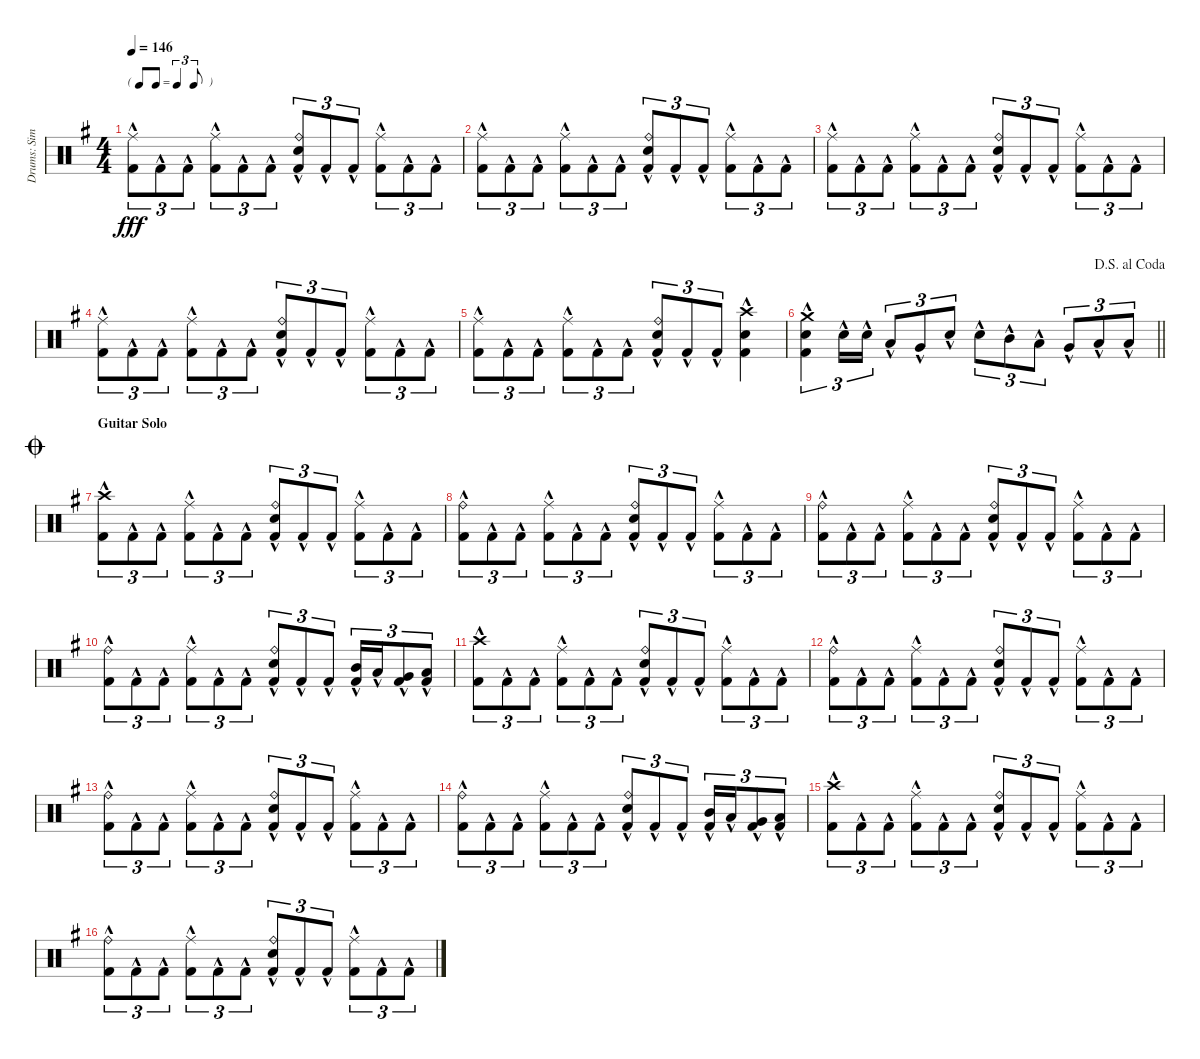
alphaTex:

\track ("Drums: Simon" "Drums: Sim") {instrument percussion}
\staff {score}
\articulation defaults
\ts (4 4)
\tf triplet8th
\tempo 146
\clef neutral
\ks g
("Ride (middle)"{hac} "Kick (hit) 2"{hac}).8{tu (3 2) dy fff} "Kick (hit) 2"{hac}.8{tu (3 2)} "Kick (hit) 2"{hac}.8{tu (3 2)} ("Ride (middle)"{hac} "Kick (hit) 2"{hac}).8{tu (3 2)} "Kick (hit) 2"{hac}.8{tu (3 2)} "Kick (hit) 2"{hac}.8{tu (3 2)} ("Ride (bell)"{hac} "Snare (hit) 2"{hac} "Kick (hit) 2"{hac}).8{tu (3 2)} "Kick (hit) 2"{hac}.8{tu (3 2)} "Kick (hit) 2"{hac}.8{tu (3 2)} ("Ride (middle)"{hac} "Kick (hit) 2"{hac}).8{tu (3 2)} "Kick (hit) 2"{hac}.8{tu (3 2)} "Kick (hit) 2"{hac}.8{tu (3 2)} |
("Ride (middle)"{hac} "Kick (hit) 2"{hac}).8{tu (3 2)} "Kick (hit) 2"{hac}.8{tu (3 2)} "Kick (hit) 2"{hac}.8{tu (3 2)} ("Ride (middle)"{hac} "Kick (hit) 2"{hac}).8{tu (3 2)} "Kick (hit) 2"{hac}.8{tu (3 2)} "Kick (hit) 2"{hac}.8{tu (3 2)} ("Ride (bell)"{hac} "Snare (hit) 2"{hac} "Kick (hit) 2"{hac}).8{tu (3 2)} "Kick (hit) 2"{hac}.8{tu (3 2)} "Kick (hit) 2"{hac}.8{tu (3 2)} ("Ride (middle)"{hac} "Kick (hit) 2"{hac}).8{tu (3 2)} "Kick (hit) 2"{hac}.8{tu (3 2)} "Kick (hit) 2"{hac}.8{tu (3 2)} |
("Ride (middle)"{hac} "Kick (hit) 2"{hac}).8{tu (3 2)} "Kick (hit) 2"{hac}.8{tu (3 2)} "Kick (hit) 2"{hac}.8{tu (3 2)} ("Ride (middle)"{hac} "Kick (hit) 2"{hac}).8{tu (3 2)} "Kick (hit) 2"{hac}.8{tu (3 2)} "Kick (hit) 2"{hac}.8{tu (3 2)} ("Ride (bell)"{hac} "Snare (hit) 2"{hac} "Kick (hit) 2"{hac}).8{tu (3 2)} "Kick (hit) 2"{hac}.8{tu (3 2)} "Kick (hit) 2"{hac}.8{tu (3 2)} ("Ride (middle)"{hac} "Kick (hit) 2"{hac}).8{tu (3 2)} "Kick (hit) 2"{hac}.8{tu (3 2)} "Kick (hit) 2"{hac}.8{tu (3 2)} |
("Ride (middle)"{hac} "Kick (hit) 2"{hac}).8{tu (3 2)} "Kick (hit) 2"{hac}.8{tu (3 2)} "Kick (hit) 2"{hac}.8{tu (3 2)} ("Ride (middle)"{hac} "Kick (hit) 2"{hac}).8{tu (3 2)} "Kick (hit) 2"{hac}.8{tu (3 2)} "Kick (hit) 2"{hac}.8{tu (3 2)} ("Ride (bell)"{hac} "Snare (hit) 2"{hac} "Kick (hit) 2"{hac}).8{tu (3 2)} "Kick (hit) 2"{hac}.8{tu (3 2)} "Kick (hit) 2"{hac}.8{tu (3 2)} ("Ride (middle)"{hac} "Kick (hit) 2"{hac}).8{tu (3 2)} "Kick (hit) 2"{hac}.8{tu (3 2)} "Kick (hit) 2"{hac}.8{tu (3 2)} |
("Ride (middle)"{hac} "Kick (hit) 2"{hac}).8{tu (3 2)} "Kick (hit) 2"{hac}.8{tu (3 2)} "Kick (hit) 2"{hac}.8{tu (3 2)} ("Ride (middle)"{hac} "Kick (hit) 2"{hac}).8{tu (3 2)} "Kick (hit) 2"{hac}.8{tu (3 2)} "Kick (hit) 2"{hac}.8{tu (3 2)} ("Ride (bell)"{hac} "Snare (hit) 2"{hac} "Kick (hit) 2"{hac}).8{tu (3 2)} "Kick (hit) 2"{hac}.8{tu (3 2)} "Kick (hit) 2"{hac}.8{tu (3 2)} ("Crash high (hit)"{hac} "Snare (hit) 2"{hac} "Kick (hit) 2"{hac}).4 |
\jump dalsegnoalcoda
\barLineRight lightlight
("Crash medium (hit)"{hac} "Snare (hit) 2"{hac} "Kick (hit) 2"{hac}).4{tu (3 2)} "Snare (hit) 2"{hac}.16{tu (3 2)} "Snare (hit) 2"{hac}.16{tu (3 2)} "Low Tom (hit)"{hac}.8{tu (3 2)} "Very Low Tom (hit)"{hac}.8{tu (3 2)} "Snare (hit) 2"{hac}.8{tu (3 2)} "Snare (hit) 2"{hac}.8{tu (3 2)} "Mid Tom (hit)"{hac}.8{tu (3 2)} "Low Tom (hit)"{hac}.8{tu (3 2)} "Very Low Tom (hit)"{hac}.8{tu (3 2)} "Low Floor Tom (hit)"{hac}.8{tu (3 2)} "Low Floor Tom (hit)"{hac}.8{tu (3 2)} |
\section ("" "Guitar Solo")
\jump coda
("Crash high (hit)"{hac} "Kick (hit) 2"{hac}).8{tu (3 2)} "Kick (hit) 2"{hac}.8{tu (3 2)} "Kick (hit) 2"{hac}.8{tu (3 2)} ("Ride (middle)"{hac} "Kick (hit) 2"{hac}).8{tu (3 2)} "Kick (hit) 2"{hac}.8{tu (3 2)} "Kick (hit) 2"{hac}.8{tu (3 2)} ("Ride (bell)"{hac} "Snare (hit) 2"{hac} "Kick (hit) 2"{hac}).8{tu (3 2)} "Kick (hit) 2"{hac}.8{tu (3 2)} "Kick (hit) 2"{hac}.8{tu (3 2)} ("Ride (middle)"{hac} "Kick (hit) 2"{hac}).8{tu (3 2)} "Kick (hit) 2"{hac}.8{tu (3 2)} "Kick (hit) 2"{hac}.8{tu (3 2)} |
("Ride (bell)"{hac} "Kick (hit) 2"{hac}).8{tu (3 2)} "Kick (hit) 2"{hac}.8{tu (3 2)} "Kick (hit) 2"{hac}.8{tu (3 2)} ("Ride (middle)"{hac} "Kick (hit) 2"{hac}).8{tu (3 2)} "Kick (hit) 2"{hac}.8{tu (3 2)} "Kick (hit) 2"{hac}.8{tu (3 2)} ("Ride (bell)"{hac} "Snare (hit) 2"{hac} "Kick (hit) 2"{hac}).8{tu (3 2)} "Kick (hit) 2"{hac}.8{tu (3 2)} "Kick (hit) 2"{hac}.8{tu (3 2)} ("Ride (middle)"{hac} "Kick (hit) 2"{hac}).8{tu (3 2)} "Kick (hit) 2"{hac}.8{tu (3 2)} "Kick (hit) 2"{hac}.8{tu (3 2)} |
("Ride (bell)"{hac} "Kick (hit) 2"{hac}).8{tu (3 2)} "Kick (hit) 2"{hac}.8{tu (3 2)} "Kick (hit) 2"{hac}.8{tu (3 2)} ("Ride (middle)"{hac} "Kick (hit) 2"{hac}).8{tu (3 2)} "Kick (hit) 2"{hac}.8{tu (3 2)} "Kick (hit) 2"{hac}.8{tu (3 2)} ("Ride (bell)"{hac} "Snare (hit) 2"{hac} "Kick (hit) 2"{hac}).8{tu (3 2)} "Kick (hit) 2"{hac}.8{tu (3 2)} "Kick (hit) 2"{hac}.8{tu (3 2)} ("Ride (middle)"{hac} "Kick (hit) 2"{hac}).8{tu (3 2)} "Kick (hit) 2"{hac}.8{tu (3 2)} "Kick (hit) 2"{hac}.8{tu (3 2)} |
("Ride (bell)"{hac} "Kick (hit) 2"{hac}).8{tu (3 2)} "Kick (hit) 2"{hac}.8{tu (3 2)} "Kick (hit) 2"{hac}.8{tu (3 2)} ("Ride (middle)"{hac} "Kick (hit) 2"{hac}).8{tu (3 2)} "Kick (hit) 2"{hac}.8{tu (3 2)} "Kick (hit) 2"{hac}.8{tu (3 2)} ("Ride (bell)"{hac} "Snare (hit) 2"{hac} "Kick (hit) 2"{hac}).8{tu (3 2)} "Kick (hit) 2"{hac}.8{tu (3 2)} "Kick (hit) 2"{hac}.8{tu (3 2)} ("Mid Tom (hit)"{hac} "Kick (hit) 2"{hac}).16{tu (3 2)} "Low Tom (hit)"{hac}.16{tu (3 2)} ("Very Low Tom (hit)"{hac} "Kick (hit) 2"{hac}).8{tu (3 2)} ("Low Floor Tom (hit)"{hac} "Kick (hit) 2"{hac}).8{tu (3 2)} |
("Crash high (hit)"{hac} "Kick (hit) 2"{hac}).8{tu (3 2)} "Kick (hit) 2"{hac}.8{tu (3 2)} "Kick (hit) 2"{hac}.8{tu (3 2)} ("Ride (middle)"{hac} "Kick (hit) 2"{hac}).8{tu (3 2)} "Kick (hit) 2"{hac}.8{tu (3 2)} "Kick (hit) 2"{hac}.8{tu (3 2)} ("Ride (bell)"{hac} "Snare (hit) 2"{hac} "Kick (hit) 2"{hac}).8{tu (3 2)} "Kick (hit) 2"{hac}.8{tu (3 2)} "Kick (hit) 2"{hac}.8{tu (3 2)} ("Ride (middle)"{hac} "Kick (hit) 2"{hac}).8{tu (3 2)} "Kick (hit) 2"{hac}.8{tu (3 2)} "Kick (hit) 2"{hac}.8{tu (3 2)} |
("Ride (bell)"{hac} "Kick (hit) 2"{hac}).8{tu (3 2)} "Kick (hit) 2"{hac}.8{tu (3 2)} "Kick (hit) 2"{hac}.8{tu (3 2)} ("Ride (middle)"{hac} "Kick (hit) 2"{hac}).8{tu (3 2)} "Kick (hit) 2"{hac}.8{tu (3 2)} "Kick (hit) 2"{hac}.8{tu (3 2)} ("Ride (bell)"{hac} "Snare (hit) 2"{hac} "Kick (hit) 2"{hac}).8{tu (3 2)} "Kick (hit) 2"{hac}.8{tu (3 2)} "Kick (hit) 2"{hac}.8{tu (3 2)} ("Ride (middle)"{hac} "Kick (hit) 2"{hac}).8{tu (3 2)} "Kick (hit) 2"{hac}.8{tu (3 2)} "Kick (hit) 2"{hac}.8{tu (3 2)} |
("Ride (bell)"{hac} "Kick (hit) 2"{hac}).8{tu (3 2)} "Kick (hit) 2"{hac}.8{tu (3 2)} "Kick (hit) 2"{hac}.8{tu (3 2)} ("Ride (middle)"{hac} "Kick (hit) 2"{hac}).8{tu (3 2)} "Kick (hit) 2"{hac}.8{tu (3 2)} "Kick (hit) 2"{hac}.8{tu (3 2)} ("Ride (bell)"{hac} "Snare (hit) 2"{hac} "Kick (hit) 2"{hac}).8{tu (3 2)} "Kick (hit) 2"{hac}.8{tu (3 2)} "Kick (hit) 2"{hac}.8{tu (3 2)} ("Ride (middle)"{hac} "Kick (hit) 2"{hac}).8{tu (3 2)} "Kick (hit) 2"{hac}.8{tu (3 2)} "Kick (hit) 2"{hac}.8{tu (3 2)} |
("Ride (bell)"{hac} "Kick (hit) 2"{hac}).8{tu (3 2)} "Kick (hit) 2"{hac}.8{tu (3 2)} "Kick (hit) 2"{hac}.8{tu (3 2)} ("Ride (middle)"{hac} "Kick (hit) 2"{hac}).8{tu (3 2)} "Kick (hit) 2"{hac}.8{tu (3 2)} "Kick (hit) 2"{hac}.8{tu (3 2)} ("Ride (bell)"{hac} "Snare (hit) 2"{hac} "Kick (hit) 2"{hac}).8{tu (3 2)} "Kick (hit) 2"{hac}.8{tu (3 2)} "Kick (hit) 2"{hac}.8{tu (3 2)} ("Mid Tom (hit)"{hac} "Kick (hit) 2"{hac}).16{tu (3 2)} "Low Tom (hit)"{hac}.16{tu (3 2)} ("Very Low Tom (hit)"{hac} "Kick (hit) 2"{hac}).8{tu (3 2)} ("Low Floor Tom (hit)"{hac} "Kick (hit) 2"{hac}).8{tu (3 2)} |
("Crash high (hit)"{hac} "Kick (hit) 2"{hac}).8{tu (3 2)} "Kick (hit) 2"{hac}.8{tu (3 2)} "Kick (hit) 2"{hac}.8{tu (3 2)} ("Ride (middle)"{hac} "Kick (hit) 2"{hac}).8{tu (3 2)} "Kick (hit) 2"{hac}.8{tu (3 2)} "Kick (hit) 2"{hac}.8{tu (3 2)} ("Ride (bell)"{hac} "Snare (hit) 2"{hac} "Kick (hit) 2"{hac}).8{tu (3 2)} "Kick (hit) 2"{hac}.8{tu (3 2)} "Kick (hit) 2"{hac}.8{tu (3 2)} ("Ride (middle)"{hac} "Kick (hit) 2"{hac}).8{tu (3 2)} "Kick (hit) 2"{hac}.8{tu (3 2)} "Kick (hit) 2"{hac}.8{tu (3 2)} |
("Ride (bell)"{hac} "Kick (hit) 2"{hac}).8{tu (3 2)} "Kick (hit) 2"{hac}.8{tu (3 2)} "Kick (hit) 2"{hac}.8{tu (3 2)} ("Ride (middle)"{hac} "Kick (hit) 2"{hac}).8{tu (3 2)} "Kick (hit) 2"{hac}.8{tu (3 2)} "Kick (hit) 2"{hac}.8{tu (3 2)} ("Ride (bell)"{hac} "Snare (hit) 2"{hac} "Kick (hit) 2"{hac}).8{tu (3 2)} "Kick (hit) 2"{hac}.8{tu (3 2)} "Kick (hit) 2"{hac}.8{tu (3 2)} ("Ride (middle)"{hac} "Kick (hit) 2"{hac}).8{tu (3 2)} "Kick (hit) 2"{hac}.8{tu (3 2)} "Kick (hit) 2"{hac}.8{tu (3 2)}
